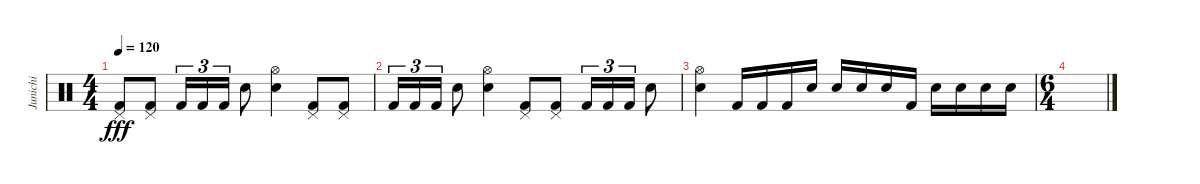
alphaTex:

\track ("Junichi" "Junichi") {instrument percussion}
\staff {score}
\articulation defaults
\ts (4 4)
\tempo 120
\clef neutral
\ks c
("Pedal Hi-Hat (hit)" "Kick (hit) 2").8{dy fff} ("Pedal Hi-Hat (hit)" "Kick (hit) 2").8 "Kick (hit) 2".16{tu (3 2)} "Kick (hit) 2".16{tu (3 2)} "Kick (hit) 2".16{tu (3 2)} "Snare (hit) 2".8 ("Hi-Hat (open)" "Snare (hit) 2").4 ("Pedal Hi-Hat (hit)" "Kick (hit) 2").8 ("Pedal Hi-Hat (hit)" "Kick (hit) 2").8 |
"Kick (hit) 2".16{tu (3 2)} "Kick (hit) 2".16{tu (3 2)} "Kick (hit) 2".16{tu (3 2)} "Snare (hit) 2".8 ("Hi-Hat (open)" "Snare (hit) 2").4 ("Pedal Hi-Hat (hit)" "Kick (hit) 2").8 ("Pedal Hi-Hat (hit)" "Kick (hit) 2").8 "Kick (hit) 2".16{tu (3 2)} "Kick (hit) 2".16{tu (3 2)} "Kick (hit) 2".16{tu (3 2)} "Snare (hit) 2".8 |
("Hi-Hat (open)" "Snare (hit) 2").4 "Kick (hit) 2".16 "Kick (hit) 2".16 "Kick (hit) 2".16 "Snare (hit) 2".16 "Snare (hit) 2".16 "Snare (hit) 2".16 "Snare (hit) 2".16 "Kick (hit) 2".16 "Snare (hit) 2".16 "Snare (hit) 2".16 "Snare (hit) 2".16 "Snare (hit) 2".16 |
\ts (6 4)
